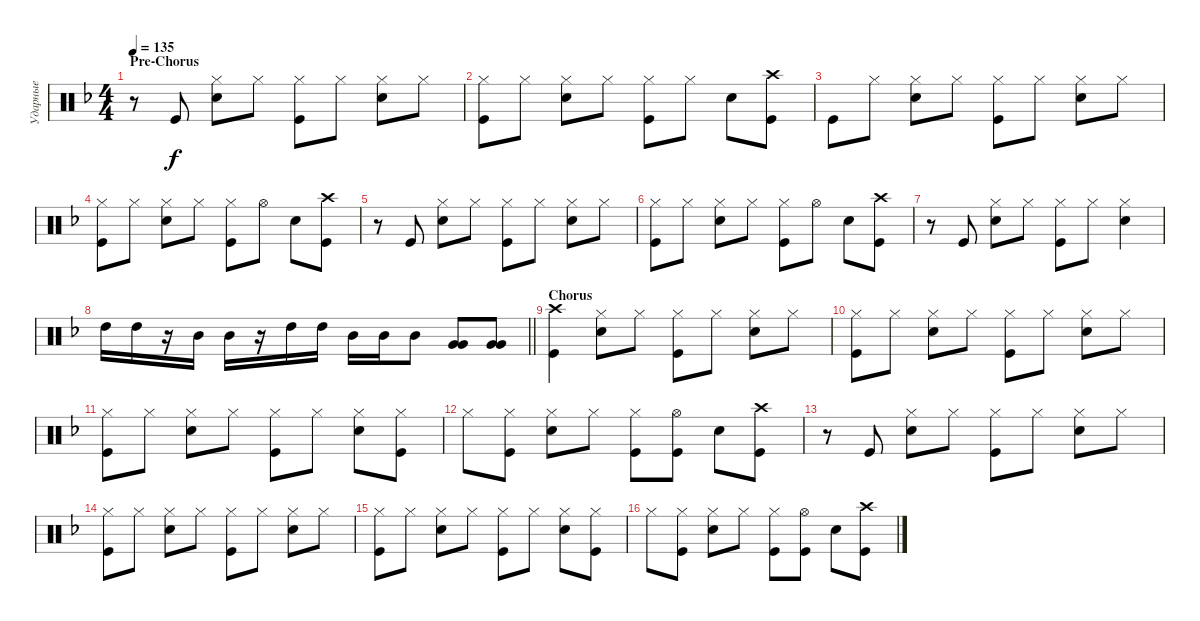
\track ("Ударные" "Ударные") {instrument percussion}
\staff {score}
\articulation defaults
\ts (4 4)
\section ("" "Pre-Chorus")
\tempo 135
\clef neutral
\ks dminor
r.8{dy mp} "Kick (hit)".8{dy f} ("Hi-Hat (closed)" "Snare (hit) 2").8 "Hi-Hat (closed)".8 ("Hi-Hat (closed)" "Kick (hit)").8 "Hi-Hat (closed)".8 ("Hi-Hat (closed)" "Snare (hit) 2").8 "Hi-Hat (closed)".8 |
("Hi-Hat (closed)" "Kick (hit)").8 "Hi-Hat (closed)".8 ("Hi-Hat (closed)" "Snare (hit) 2").8 "Hi-Hat (closed)".8 ("Hi-Hat (closed)" "Kick (hit)").8 "Hi-Hat (closed)".8 "Snare (hit) 2".8 ("Kick (hit)" "Crash high (hit)").8 |
"Kick (hit)".8 "Hi-Hat (closed)".8 ("Hi-Hat (closed)" "Snare (hit) 2").8 "Hi-Hat (closed)".8 ("Hi-Hat (closed)" "Kick (hit)").8 "Hi-Hat (closed)".8 ("Hi-Hat (closed)" "Snare (hit) 2").8 "Hi-Hat (closed)".8 |
("Hi-Hat (closed)" "Kick (hit)").8 "Hi-Hat (closed)".8 ("Hi-Hat (closed)" "Snare (hit) 2").8 "Hi-Hat (closed)".8 ("Hi-Hat (closed)" "Kick (hit)").8 "Hi-Hat (open)".8 "Snare (hit) 2".8 ("Kick (hit)" "Crash high (hit)").8 |
r.8 "Kick (hit)".8 ("Hi-Hat (closed)" "Snare (hit) 2").8 "Hi-Hat (closed)".8 ("Hi-Hat (closed)" "Kick (hit)").8 "Hi-Hat (closed)".8 ("Hi-Hat (closed)" "Snare (hit) 2").8 "Hi-Hat (closed)".8 |
("Hi-Hat (closed)" "Kick (hit)").8 "Hi-Hat (closed)".8 ("Hi-Hat (closed)" "Snare (hit) 2").8 "Hi-Hat (closed)".8 ("Hi-Hat (closed)" "Kick (hit)").8 "Hi-Hat (open)".8 "Snare (hit) 2".8 ("Kick (hit)" "Crash high (hit)").8 |
r.8 "Kick (hit)".8 ("Hi-Hat (closed)" "Snare (hit) 2").8 "Hi-Hat (closed)".8 ("Hi-Hat (closed)" "Kick (hit)").8 "Hi-Hat (closed)".8 ("Hi-Hat (closed)" "Snare (hit) 2").4 |
\barLineRight lightlight "High Tom (hit)".16{bd 480} "High Tom (hit)".16
r.16 "Mid Tom (hit)".16 "Mid Tom (hit)".16 r.16 "High Tom (hit)".16 "High Tom (hit)".16 "Mid Tom (hit)".16 "Mid Tom (hit)".16 "Mid Tom (hit)".8 ("Very Low Tom (hit)" "Very Low Tom (hit)").8{bd 120} ("Very Low Tom (hit)" "Very Low Tom (hit)").8{bd 120} |
\section ("" "Chorus")
("Crash high (hit)" "Kick (hit)").4 ("Hi-Hat (closed)" "Snare (hit) 2").8 "Hi-Hat (closed)".8 ("Hi-Hat (closed)" "Kick (hit)").8 "Hi-Hat (closed)".8 ("Hi-Hat (closed)" "Snare (hit) 2").8 "Hi-Hat (closed)".8 |
("Hi-Hat (closed)" "Kick (hit)").8 "Hi-Hat (closed)".8 ("Hi-Hat (closed)" "Snare (hit) 2").8 "Hi-Hat (closed)".8 ("Hi-Hat (closed)" "Kick (hit)").8 "Hi-Hat (closed)".8 ("Hi-Hat (closed)" "Snare (hit) 2").8 "Hi-Hat (closed)".8 |
("Hi-Hat (closed)" "Kick (hit)").8 "Hi-Hat (closed)".8 ("Hi-Hat (closed)" "Snare (hit) 2").8 "Hi-Hat (closed)".8 ("Hi-Hat (closed)" "Kick (hit)").8 "Hi-Hat (closed)".8 ("Hi-Hat (closed)" "Snare (hit) 2").8 ("Hi-Hat (closed)" "Kick (hit)").8 |
"Hi-Hat (closed)".8 ("Hi-Hat (closed)" "Kick (hit)").8 ("Hi-Hat (closed)" "Snare (hit) 2").8 "Hi-Hat (closed)".8 ("Hi-Hat (closed)" "Kick (hit)").8 ("Hi-Hat (open)" "Kick (hit)").8 "Snare (hit) 2".8 ("Kick (hit)" "Crash high (hit)").8 |
r.8 "Kick (hit)".8 ("Hi-Hat (closed)" "Snare (hit) 2").8 "Hi-Hat (closed)".8 ("Hi-Hat (closed)" "Kick (hit)").8 "Hi-Hat (closed)".8 ("Hi-Hat (closed)" "Snare (hit) 2").8 "Hi-Hat (closed)".8 |
("Hi-Hat (closed)" "Kick (hit)").8 "Hi-Hat (closed)".8 ("Hi-Hat (closed)" "Snare (hit) 2").8 "Hi-Hat (closed)".8 ("Hi-Hat (closed)" "Kick (hit)").8 "Hi-Hat (closed)".8 ("Hi-Hat (closed)" "Snare (hit) 2").8 "Hi-Hat (closed)".8 |
("Hi-Hat (closed)" "Kick (hit)").8 "Hi-Hat (closed)".8 ("Hi-Hat (closed)" "Snare (hit) 2").8 "Hi-Hat (closed)".8 ("Hi-Hat (closed)" "Kick (hit)").8 "Hi-Hat (closed)".8 ("Hi-Hat (closed)" "Snare (hit) 2").8 ("Hi-Hat (closed)" "Kick (hit)").8 |
"Hi-Hat (closed)".8 ("Hi-Hat (closed)" "Kick (hit)").8 ("Hi-Hat (closed)" "Snare (hit) 2").8 "Hi-Hat (closed)".8 ("Hi-Hat (closed)" "Kick (hit)").8 ("Hi-Hat (open)" "Kick (hit)").8 "Snare (hit) 2".8 ("Kick (hit)" "Crash high (hit)").8
